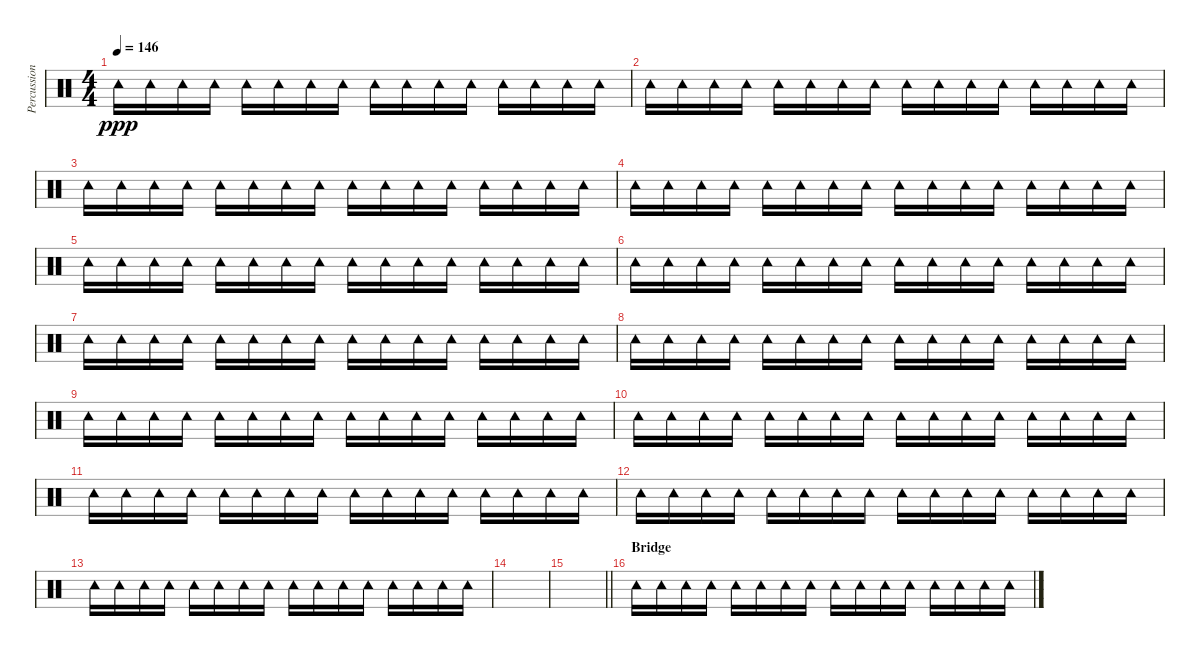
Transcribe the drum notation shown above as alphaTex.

\track ("Percussion" "Percussion") {instrument percussion}
\staff {score}
\articulation defaults
\ts (4 4)
\tempo 146
\clef neutral
\ks c "Tambourine (hit)".16{dy ppp} "Tambourine (hit)".16 "Tambourine (hit)".16 "Tambourine (hit)".16 "Tambourine (hit)".16 "Tambourine (hit)".16 "Tambourine (hit)".16 "Tambourine (hit)".16 "Tambourine (hit)".16 "Tambourine (hit)".16 "Tambourine (hit)".16 "Tambourine (hit)".16 "Tambourine (hit)".16 "Tambourine (hit)".16 "Tambourine (hit)".16 "Tambourine (hit)".16
|
"Tambourine (hit)".16 "Tambourine (hit)".16 "Tambourine (hit)".16 "Tambourine (hit)".16 "Tambourine (hit)".16 "Tambourine (hit)".16 "Tambourine (hit)".16 "Tambourine (hit)".16 "Tambourine (hit)".16 "Tambourine (hit)".16 "Tambourine (hit)".16 "Tambourine (hit)".16 "Tambourine (hit)".16 "Tambourine (hit)".16 "Tambourine (hit)".16 "Tambourine (hit)".16 |
"Tambourine (hit)".16 "Tambourine (hit)".16 "Tambourine (hit)".16 "Tambourine (hit)".16 "Tambourine (hit)".16 "Tambourine (hit)".16 "Tambourine (hit)".16 "Tambourine (hit)".16 "Tambourine (hit)".16 "Tambourine (hit)".16 "Tambourine (hit)".16 "Tambourine (hit)".16 "Tambourine (hit)".16 "Tambourine (hit)".16 "Tambourine (hit)".16 "Tambourine (hit)".16 |
"Tambourine (hit)".16 "Tambourine (hit)".16 "Tambourine (hit)".16 "Tambourine (hit)".16 "Tambourine (hit)".16 "Tambourine (hit)".16 "Tambourine (hit)".16 "Tambourine (hit)".16 "Tambourine (hit)".16 "Tambourine (hit)".16 "Tambourine (hit)".16 "Tambourine (hit)".16 "Tambourine (hit)".16 "Tambourine (hit)".16 "Tambourine (hit)".16 "Tambourine (hit)".16 |
"Tambourine (hit)".16 "Tambourine (hit)".16 "Tambourine (hit)".16 "Tambourine (hit)".16 "Tambourine (hit)".16 "Tambourine (hit)".16 "Tambourine (hit)".16 "Tambourine (hit)".16 "Tambourine (hit)".16 "Tambourine (hit)".16 "Tambourine (hit)".16 "Tambourine (hit)".16 "Tambourine (hit)".16 "Tambourine (hit)".16 "Tambourine (hit)".16 "Tambourine (hit)".16 |
"Tambourine (hit)".16 "Tambourine (hit)".16 "Tambourine (hit)".16 "Tambourine (hit)".16 "Tambourine (hit)".16 "Tambourine (hit)".16 "Tambourine (hit)".16 "Tambourine (hit)".16 "Tambourine (hit)".16 "Tambourine (hit)".16 "Tambourine (hit)".16 "Tambourine (hit)".16 "Tambourine (hit)".16 "Tambourine (hit)".16 "Tambourine (hit)".16 "Tambourine (hit)".16 |
"Tambourine (hit)".16 "Tambourine (hit)".16 "Tambourine (hit)".16 "Tambourine (hit)".16 "Tambourine (hit)".16 "Tambourine (hit)".16 "Tambourine (hit)".16 "Tambourine (hit)".16 "Tambourine (hit)".16 "Tambourine (hit)".16 "Tambourine (hit)".16 "Tambourine (hit)".16 "Tambourine (hit)".16 "Tambourine (hit)".16 "Tambourine (hit)".16 "Tambourine (hit)".16 |
"Tambourine (hit)".16 "Tambourine (hit)".16 "Tambourine (hit)".16 "Tambourine (hit)".16 "Tambourine (hit)".16 "Tambourine (hit)".16 "Tambourine (hit)".16 "Tambourine (hit)".16 "Tambourine (hit)".16 "Tambourine (hit)".16 "Tambourine (hit)".16 "Tambourine (hit)".16 "Tambourine (hit)".16 "Tambourine (hit)".16 "Tambourine (hit)".16 "Tambourine (hit)".16 |
"Tambourine (hit)".16 "Tambourine (hit)".16 "Tambourine (hit)".16 "Tambourine (hit)".16 "Tambourine (hit)".16 "Tambourine (hit)".16 "Tambourine (hit)".16 "Tambourine (hit)".16 "Tambourine (hit)".16 "Tambourine (hit)".16 "Tambourine (hit)".16 "Tambourine (hit)".16 "Tambourine (hit)".16 "Tambourine (hit)".16 "Tambourine (hit)".16 "Tambourine (hit)".16 |
"Tambourine (hit)".16 "Tambourine (hit)".16 "Tambourine (hit)".16 "Tambourine (hit)".16 "Tambourine (hit)".16 "Tambourine (hit)".16 "Tambourine (hit)".16 "Tambourine (hit)".16 "Tambourine (hit)".16 "Tambourine (hit)".16 "Tambourine (hit)".16 "Tambourine (hit)".16 "Tambourine (hit)".16 "Tambourine (hit)".16 "Tambourine (hit)".16 "Tambourine (hit)".16 |
"Tambourine (hit)".16 "Tambourine (hit)".16 "Tambourine (hit)".16 "Tambourine (hit)".16 "Tambourine (hit)".16 "Tambourine (hit)".16 "Tambourine (hit)".16 "Tambourine (hit)".16 "Tambourine (hit)".16 "Tambourine (hit)".16 "Tambourine (hit)".16 "Tambourine (hit)".16 "Tambourine (hit)".16 "Tambourine (hit)".16 "Tambourine (hit)".16 "Tambourine (hit)".16 |
"Tambourine (hit)".16 "Tambourine (hit)".16 "Tambourine (hit)".16 "Tambourine (hit)".16 "Tambourine (hit)".16 "Tambourine (hit)".16 "Tambourine (hit)".16 "Tambourine (hit)".16 "Tambourine (hit)".16 "Tambourine (hit)".16 "Tambourine (hit)".16 "Tambourine (hit)".16 "Tambourine (hit)".16 "Tambourine (hit)".16 "Tambourine (hit)".16 "Tambourine (hit)".16 |
"Tambourine (hit)".16 "Tambourine (hit)".16 "Tambourine (hit)".16 "Tambourine (hit)".16 "Tambourine (hit)".16 "Tambourine (hit)".16 "Tambourine (hit)".16 "Tambourine (hit)".16 "Tambourine (hit)".16 "Tambourine (hit)".16 "Tambourine (hit)".16 "Tambourine (hit)".16 "Tambourine (hit)".16 "Tambourine (hit)".16 "Tambourine (hit)".16 "Tambourine (hit)".16 |
|
\barLineRight lightlight
|
\section ("" "Bridge")
"Tambourine (hit)".16 "Tambourine (hit)".16 "Tambourine (hit)".16 "Tambourine (hit)".16 "Tambourine (hit)".16 "Tambourine (hit)".16 "Tambourine (hit)".16 "Tambourine (hit)".16 "Tambourine (hit)".16 "Tambourine (hit)".16 "Tambourine (hit)".16 "Tambourine (hit)".16 "Tambourine (hit)".16 "Tambourine (hit)".16 "Tambourine (hit)".16 "Tambourine (hit)".16
